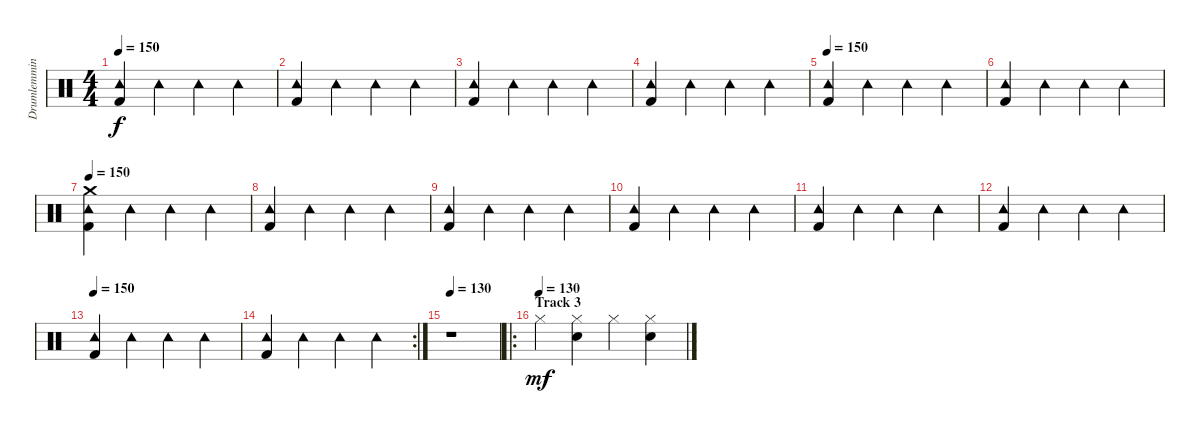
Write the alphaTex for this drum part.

\track ("Drumlemming" "Drumlemmin") {instrument percussion}
\staff {score}
\articulation defaults
\ts (4 4)
\tempo 150
\clef neutral
\ks c
("Kick (hit) 2" "Tambourine (hit)").4{dy f} "Tambourine (hit)".4 "Tambourine (hit)".4 "Tambourine (hit)".4 |
("Kick (hit) 2" "Tambourine (hit)").4 "Tambourine (hit)".4 "Tambourine (hit)".4 "Tambourine (hit)".4 |
("Kick (hit) 2" "Tambourine (hit)").4 "Tambourine (hit)".4 "Tambourine (hit)".4 "Tambourine (hit)".4 |
("Kick (hit) 2" "Tambourine (hit)").4 "Tambourine (hit)".4 "Tambourine (hit)".4 "Tambourine (hit)".4 |
\tempo 150
("Kick (hit) 2" "Tambourine (hit)").4 "Tambourine (hit)".4 "Tambourine (hit)".4 "Tambourine (hit)".4 |
("Kick (hit) 2" "Tambourine (hit)").4 "Tambourine (hit)".4 "Tambourine (hit)".4 "Tambourine (hit)".4 |
\tempo 150
("Kick (hit) 2" "Tambourine (hit)" "Crash medium (hit)").4 "Tambourine (hit)".4 "Tambourine (hit)".4 "Tambourine (hit)".4 |
("Kick (hit) 2" "Tambourine (hit)").4 "Tambourine (hit)".4 "Tambourine (hit)".4 "Tambourine (hit)".4 |
("Kick (hit) 2" "Tambourine (hit)").4 "Tambourine (hit)".4 "Tambourine (hit)".4 "Tambourine (hit)".4 |
("Kick (hit) 2" "Tambourine (hit)").4 "Tambourine (hit)".4 "Tambourine (hit)".4 "Tambourine (hit)".4 |
("Kick (hit) 2" "Tambourine (hit)").4 "Tambourine (hit)".4 "Tambourine (hit)".4 "Tambourine (hit)".4 |
("Kick (hit) 2" "Tambourine (hit)").4 "Tambourine (hit)".4 "Tambourine (hit)".4 "Tambourine (hit)".4 |
\tempo 150
("Kick (hit) 2" "Tambourine (hit)").4 "Tambourine (hit)".4 "Tambourine (hit)".4 "Tambourine (hit)".4 |
\rc 2
("Kick (hit) 2" "Tambourine (hit)").4 "Tambourine (hit)".4 "Tambourine (hit)".4 "Tambourine (hit)".4 |
\tempo 130
r.1 |
\ro
\section ("" "Track 3")
\tempo (130)
"Hi-Hat (closed)".4{dy mf} ("Hand Clap (hit)" "Hi-Hat (closed)").4 "Hi-Hat (closed)".4 ("Hand Clap (hit)" "Hi-Hat (closed)").4
